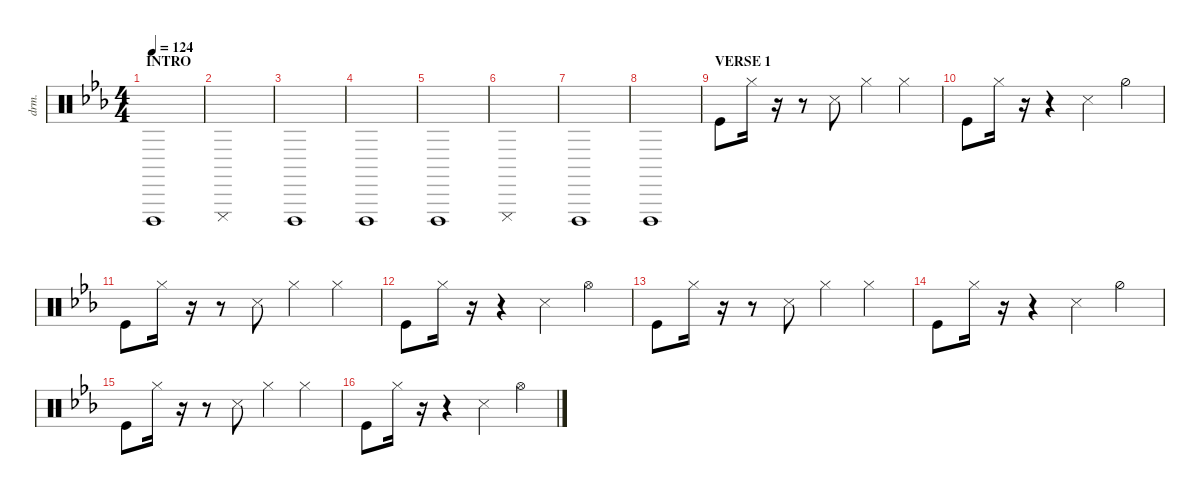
\defaultSystemsLayout 4
\hideDynamics
\bracketExtendMode nobrackets
\otherSystemsTrackNameOrientation horizontal
\track ("Drumkit" "drm.") {instrument percussion}
\staff {score}
\articulation defaults
\ts (4 4)
\section ("" "INTRO")
\tempo 124
\clef neutral
\ks cminor "Cuica (open)"{acc forcenatural}.1{dy mf beam Down}
|
"Cuica (mute)"{acc forcenatural}.1{beam Down} |
"Cuica (open)"{acc forcenatural}.1{beam Down} |
"Cuica (open)"{acc forcenatural}.1{beam Down} |
"Cuica (open)"{acc forcenatural}.1{beam Down} |
"Cuica (mute)"{acc forcenatural}.1{beam Down} |
"Cuica (open)"{acc forcenatural}.1{beam Down} |
"Cuica (open)"{acc forcenatural}.1{beam Down} |
\section ("" "VERSE 1")
"Kick (hit)"{acc forcenatural}.8{beam Down} "Hi-Hat (closed)"{acc forcenatural}.16{beam Down} r.16{beam Down} r.8{beam Down} "Snare (side stick) 3"{acc forcenatural}.8{beam Down} "Hi-Hat (closed)"{acc forcenatural}.4{beam Down} "Hi-Hat (closed)"{acc forcenatural}.4{beam Down} |
"Kick (hit)"{acc forcenatural}.8{beam Down} "Hi-Hat (closed)"{acc forcenatural}.16{beam Down} r.16{beam Down} r.4{beam Down} "Snare (side stick) 3"{acc forcenatural}.4{beam Down} "Hi-Hat (half)"{acc forcenatural}.4{beam Down} |
"Kick (hit)"{acc forcenatural}.8{beam Down} "Hi-Hat (closed)"{acc forcenatural}.16{beam Down} r.16{beam Down} r.8{beam Down} "Snare (side stick) 3"{acc forcenatural}.8{beam Down} "Hi-Hat (closed)"{acc forcenatural}.4{beam Down} "Hi-Hat (closed)"{acc forcenatural}.4{beam Down} |
"Kick (hit)"{acc forcenatural}.8{beam Down} "Hi-Hat (closed)"{acc forcenatural}.16{beam Down} r.16{beam Down} r.4{beam Down} "Snare (side stick) 3"{acc forcenatural}.4{beam Down} "Hi-Hat (open)"{acc forcenatural}.4{beam Down} |
"Kick (hit)"{acc forcenatural}.8{beam Down} "Hi-Hat (closed)"{acc forcenatural}.16{beam Down} r.16{beam Down} r.8{beam Down} "Snare (side stick) 3"{acc forcenatural}.8{beam Down} "Hi-Hat (closed)"{acc forcenatural}.4{beam Down} "Hi-Hat (closed)"{acc forcenatural}.4{beam Down} |
"Kick (hit)"{acc forcenatural}.8{beam Down} "Hi-Hat (closed)"{acc forcenatural}.16{beam Down} r.16{beam Down} r.4{beam Down} "Snare (side stick) 3"{acc forcenatural}.4{beam Down} "Hi-Hat (half)"{acc forcenatural}.4{beam Down} |
"Kick (hit)"{acc forcenatural}.8{beam Down} "Hi-Hat (closed)"{acc forcenatural}.16{beam Down} r.16{beam Down} r.8{beam Down} "Snare (side stick) 3"{acc forcenatural}.8{beam Down} "Hi-Hat (closed)"{acc forcenatural}.4{beam Down} "Hi-Hat (closed)"{acc forcenatural}.4{beam Down} |
"Kick (hit)"{acc forcenatural}.8{beam Down} "Hi-Hat (closed)"{acc forcenatural}.16{beam Down} r.16{beam Down} r.4{beam Down} "Snare (side stick) 3"{acc forcenatural}.4{beam Down} "Hi-Hat (open)"{acc forcenatural}.4{beam Down}
